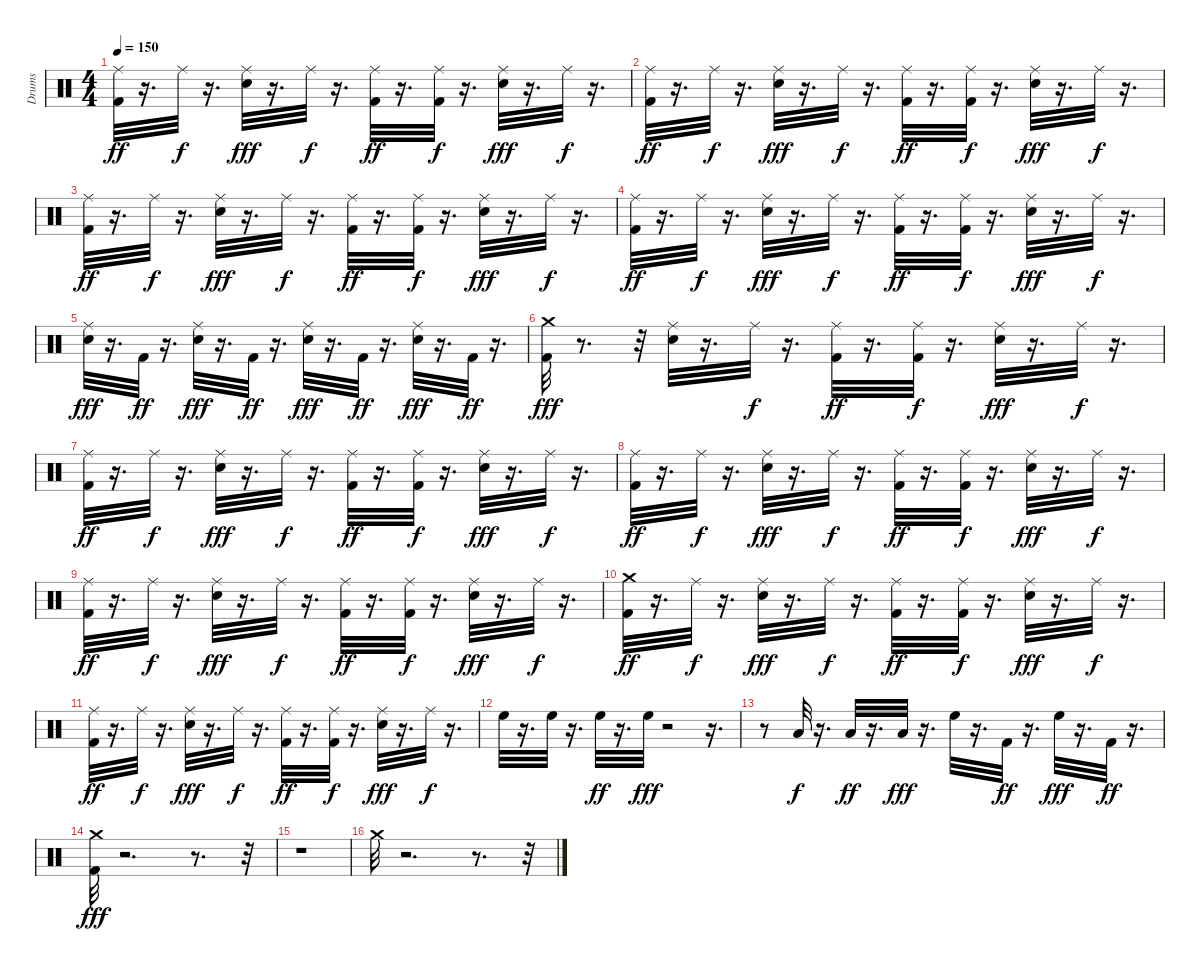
\track ("Drums" "Drums") {instrument percussion}
\staff {score}
\articulation defaults
\ts (4 4)
\tempo 150
\clef neutral
\ks c
("Kick (hit) 2" "Ride (middle)").32{dy ff} r.16{d} "Ride (middle)".32{dy f} r.16{d} ("Snare (hit) 2" "Ride (middle)").32{dy fff} r.16{d} "Ride (middle)".32{dy f} r.16{d} ("Kick (hit) 2" "Ride (middle)").32{dy ff} r.16{d} ("Kick (hit) 2" "Ride (middle)").32{dy f} r.16{d} ("Snare (hit) 2" "Ride (middle)").32{dy fff} r.16{d} "Ride (middle)".32{dy f} r.16{d} |
("Kick (hit) 2" "Ride (middle)").32{dy ff} r.16{d} "Ride (middle)".32{dy f} r.16{d} ("Snare (hit) 2" "Ride (middle)").32{dy fff} r.16{d} "Ride (middle)".32{dy f} r.16{d} ("Kick (hit) 2" "Ride (middle)").32{dy ff} r.16{d} ("Kick (hit) 2" "Ride (middle)").32{dy f} r.16{d} ("Snare (hit) 2" "Ride (middle)").32{dy fff} r.16{d} "Ride (middle)".32{dy f} r.16{d} |
("Kick (hit) 2" "Ride (middle)").32{dy ff} r.16{d} "Ride (middle)".32{dy f} r.16{d} ("Snare (hit) 2" "Ride (middle)").32{dy fff} r.16{d} "Ride (middle)".32{dy f} r.16{d} ("Kick (hit) 2" "Ride (middle)").32{dy ff} r.16{d} ("Kick (hit) 2" "Ride (middle)").32{dy f} r.16{d} ("Snare (hit) 2" "Ride (middle)").32{dy fff} r.16{d} "Ride (middle)".32{dy f} r.16{d} |
("Kick (hit) 2" "Ride (middle)").32{dy ff} r.16{d} "Ride (middle)".32{dy f} r.16{d} ("Snare (hit) 2" "Ride (middle)").32{dy fff} r.16{d} "Ride (middle)".32{dy f} r.16{d} ("Kick (hit) 2" "Ride (middle)").32{dy ff} r.16{d} ("Kick (hit) 2" "Ride (middle)").32{dy f} r.16{d} ("Snare (hit) 2" "Ride (middle)").32{dy fff} r.16{d} "Ride (middle)".32{dy f} r.16{d} |
("Snare (hit) 2" "Ride (middle)").32{dy fff} r.16{d} "Kick (hit) 2".32{dy ff} r.16{d} ("Snare (hit) 2" "Ride (middle)").32{dy fff} r.16{d} "Kick (hit) 2".32{dy ff} r.16{d} ("Snare (hit) 2" "Ride (middle)").32{dy fff} r.16{d} "Kick (hit) 2".32{dy ff} r.16{d} ("Snare (hit) 2" "Ride (middle)").32{dy fff} r.16{d} "Kick (hit) 2".32{dy ff} r.16{d} |
("Kick (hit) 2" "Crash medium (hit)").32{dy fff} r.8{d} r.32 ("Snare (hit) 2" "Ride (middle)").32 r.16{d} "Ride (middle)".32{dy f} r.16{d} ("Kick (hit) 2" "Ride (middle)").32{dy ff} r.16{d} ("Kick (hit) 2" "Ride (middle)").32{dy f} r.16{d} ("Snare (hit) 2" "Ride (middle)").32{dy fff} r.16{d} "Ride (middle)".32{dy f} r.16{d} |
("Kick (hit) 2" "Ride (middle)").32{dy ff} r.16{d} "Ride (middle)".32{dy f} r.16{d} ("Snare (hit) 2" "Ride (middle)").32{dy fff} r.16{d} "Ride (middle)".32{dy f} r.16{d} ("Kick (hit) 2" "Ride (middle)").32{dy ff} r.16{d} ("Kick (hit) 2" "Ride (middle)").32{dy f} r.16{d} ("Snare (hit) 2" "Ride (middle)").32{dy fff} r.16{d} "Ride (middle)".32{dy f} r.16{d} |
("Kick (hit) 2" "Ride (middle)").32{dy ff} r.16{d} "Ride (middle)".32{dy f} r.16{d} ("Snare (hit) 2" "Ride (middle)").32{dy fff} r.16{d} "Ride (middle)".32{dy f} r.16{d} ("Kick (hit) 2" "Ride (middle)").32{dy ff} r.16{d} ("Kick (hit) 2" "Ride (middle)").32{dy f} r.16{d} ("Snare (hit) 2" "Ride (middle)").32{dy fff} r.16{d} "Ride (middle)".32{dy f} r.16{d} |
("Kick (hit) 2" "Ride (middle)").32{dy ff} r.16{d} "Ride (middle)".32{dy f} r.16{d} ("Snare (hit) 2" "Ride (middle)").32{dy fff} r.16{d} "Ride (middle)".32{dy f} r.16{d} ("Kick (hit) 2" "Ride (middle)").32{dy ff} r.16{d} ("Kick (hit) 2" "Ride (middle)").32{dy f} r.16{d} ("Snare (hit) 2" "Ride (middle)").32{dy fff} r.16{d} "Ride (middle)".32{dy f} r.16{d} |
("Crash medium (hit)" "Kick (hit) 2").32{dy ff} r.16{d} "Ride (middle)".32{dy f} r.16{d} ("Snare (hit) 2" "Ride (middle)").32{dy fff} r.16{d} "Ride (middle)".32{dy f} r.16{d} ("Kick (hit) 2" "Ride (middle)").32{dy ff} r.16{d} ("Kick (hit) 2" "Ride (middle)").32{dy f} r.16{d} ("Snare (hit) 2" "Ride (middle)").32{dy fff} r.16{d} "Ride (middle)".32{dy f} r.16{d} |
("Kick (hit) 2" "Ride (middle)").32{dy ff} r.16{d} "Ride (middle)".32{dy f} r.16{d} ("Snare (hit) 2" "Ride (middle)").32{dy fff} r.16{d} "Ride (middle)".32{dy f} r.16{d} ("Kick (hit) 2" "Ride (middle)").32{dy ff} r.16{d} ("Kick (hit) 2" "Ride (middle)").32{dy f} r.16{d} ("Snare (hit) 2" "Ride (middle)").32{dy fff} r.16{d} "Ride (middle)".32{dy f} r.16{d} |
"High Floor Tom (hit)".32 r.16{d} "High Floor Tom (hit)".32 r.16{d} "High Floor Tom (hit)".32{dy ff} r.16{d} "High Floor Tom (hit)".32{dy fff} r.2 r.16{d} |
r.8 "Low Tom (hit)".32{dy f} r.16{d} "Low Tom (hit)".32{dy ff} r.16{d} "Low Tom (hit)".32{dy fff} r.16{d} "High Floor Tom (hit)".32 r.16{d} "Kick (hit) 2".32{dy ff} r.16{d} "High Floor Tom (hit)".32{dy fff} r.16{d} "Kick (hit) 2".32{dy ff} r.16{d} |
("Kick (hit) 2" "Crash medium (hit)").32{dy fff} r.2{d} r.8{d} r.32 |
r.1 |
"Crash medium (hit)".32 r.2{d} r.8{d} r.32
